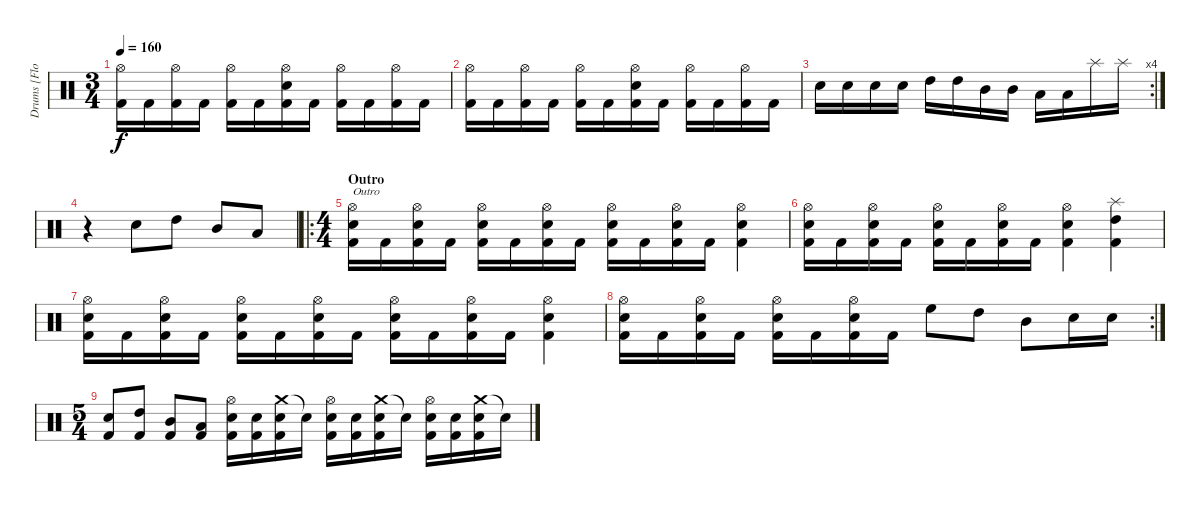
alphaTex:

\track ("Drums [Flo Mounier]" "Drums [Flo") {instrument percussion}
\staff {score}
\articulation defaults
\ts (3 4)
\tempo 160
\clef neutral
\ks c
("Hi-Hat (open)" "Kick (hit) 2").16{dy f} "Kick (hit) 2".16 ("Hi-Hat (open)" "Kick (hit) 2").16 "Kick (hit) 2".16 ("Hi-Hat (open)" "Kick (hit) 2").16 "Kick (hit) 2".16 ("Hi-Hat (open)" "Electric Snare (hit)" "Kick (hit) 2").16 "Kick (hit) 2".16 ("Hi-Hat (open)" "Kick (hit) 2").16 "Kick (hit) 2".16 ("Hi-Hat (open)" "Kick (hit) 2").16 "Kick (hit) 2".16 |
("Hi-Hat (open)" "Kick (hit) 2").16 "Kick (hit) 2".16 ("Hi-Hat (open)" "Kick (hit) 2").16 "Kick (hit) 2".16 ("Hi-Hat (open)" "Kick (hit) 2").16 "Kick (hit) 2".16 ("Hi-Hat (open)" "Electric Snare (hit)" "Kick (hit) 2").16 "Kick (hit) 2".16 ("Hi-Hat (open)" "Kick (hit) 2").16 "Kick (hit) 2".16 ("Hi-Hat (open)" "Kick (hit) 2").16 "Kick (hit) 2".16 |
\rc 4 "Electric Snare (hit)".16 "Electric Snare (hit)".16 "Electric Snare (hit)".16 "Electric Snare (hit)".16 "High Tom (hit)".16 "High Tom (hit)".16 "Mid Tom (hit)".16 "Mid Tom (hit)".16 "Low Tom (hit)".16 "Low Tom (hit)".16 "Splash (hit)".16 "Splash (hit)".16
|
r.4 "Electric Snare (hit)".8 "High Tom (hit)".8 "Mid Tom (hit)".8 "Low Tom (hit)".8 |
\ro
\ts (4 4)
\section ("" "Outro")
("Hi-Hat (open)" "Electric Snare (hit)" "Kick (hit) 2").16{txt "Outro"} "Kick (hit) 2".16 ("Hi-Hat (open)" "Electric Snare (hit)" "Kick (hit) 2").16 "Kick (hit) 2".16 ("Hi-Hat (open)" "Electric Snare (hit)" "Kick (hit) 2").16 "Kick (hit) 2".16 ("Hi-Hat (open)" "Electric Snare (hit)" "Kick (hit) 2").16 "Kick (hit) 2".16 ("Hi-Hat (open)" "Electric Snare (hit)" "Kick (hit) 2").16 "Kick (hit) 2".16 ("Hi-Hat (open)" "Electric Snare (hit)" "Kick (hit) 2").16 "Kick (hit) 2".16 ("Hi-Hat (open)" "Electric Snare (hit)" "Kick (hit) 2").4 |
("Hi-Hat (open)" "Electric Snare (hit)" "Kick (hit) 2").16 "Kick (hit) 2".16 ("Hi-Hat (open)" "Electric Snare (hit)" "Kick (hit) 2").16 "Kick (hit) 2".16 ("Hi-Hat (open)" "Electric Snare (hit)" "Kick (hit) 2").16 "Kick (hit) 2".16 ("Hi-Hat (open)" "Electric Snare (hit)" "Kick (hit) 2").16 "Kick (hit) 2".16 ("Hi-Hat (open)" "Electric Snare (hit)" "Kick (hit) 2").4 ("Splash (hit)" "High Tom (hit)" "Kick (hit) 2").4 |
("Hi-Hat (open)" "Electric Snare (hit)" "Kick (hit) 2").16 "Kick (hit) 2".16 ("Hi-Hat (open)" "Electric Snare (hit)" "Kick (hit) 2").16 "Kick (hit) 2".16 ("Hi-Hat (open)" "Electric Snare (hit)" "Kick (hit) 2").16 "Kick (hit) 2".16 ("Hi-Hat (open)" "Electric Snare (hit)" "Kick (hit) 2").16 "Kick (hit) 2".16 ("Hi-Hat (open)" "Electric Snare (hit)" "Kick (hit) 2").16 "Kick (hit) 2".16 ("Hi-Hat (open)" "Electric Snare (hit)" "Kick (hit) 2").16 "Kick (hit) 2".16 ("Hi-Hat (open)" "Electric Snare (hit)" "Kick (hit) 2").4 |
\rc 2
("Hi-Hat (open)" "Electric Snare (hit)" "Kick (hit) 2").16 "Kick (hit) 2".16 ("Hi-Hat (open)" "Electric Snare (hit)" "Kick (hit) 2").16 "Kick (hit) 2".16 ("Hi-Hat (open)" "Electric Snare (hit)" "Kick (hit) 2").16 "Kick (hit) 2".16 ("Hi-Hat (open)" "Electric Snare (hit)" "Kick (hit) 2").16 "Kick (hit) 2".16 "High Floor Tom (hit)".8 "High Tom (hit)".8 "Mid Tom (hit)".8 "Electric Snare (hit)".16 "Electric Snare (hit)".16 |
\ts (5 4)
("Electric Snare (hit)" "Kick (hit) 2").8 ("High Tom (hit)" "Kick (hit) 2").8 ("Mid Tom (hit)" "Kick (hit) 2").8 ("Low Tom (hit)" "Kick (hit) 2").8 ("Hi-Hat (open)" "Electric Snare (hit)" "Kick (hit) 2").16 ("Electric Snare (hit)" "Kick (hit) 2").16 ("Crash medium (hit)" "Electric Snare (hit)" "Kick (hit) 2").16 "Snare (hit)"{t}.16 ("Hi-Hat (open)" "Electric Snare (hit)" "Kick (hit) 2").16 ("Electric Snare (hit)" "Kick (hit) 2").16 ("Crash medium (hit)" "Electric Snare (hit)" "Kick (hit) 2").16 "Snare (hit)"{t}.16 ("Hi-Hat (open)" "Electric Snare (hit)" "Kick (hit) 2").16 ("Electric Snare (hit)" "Kick (hit) 2").16 ("Crash medium (hit)" "Electric Snare (hit)" "Kick (hit) 2").16 "Snare (hit)"{t}.16
